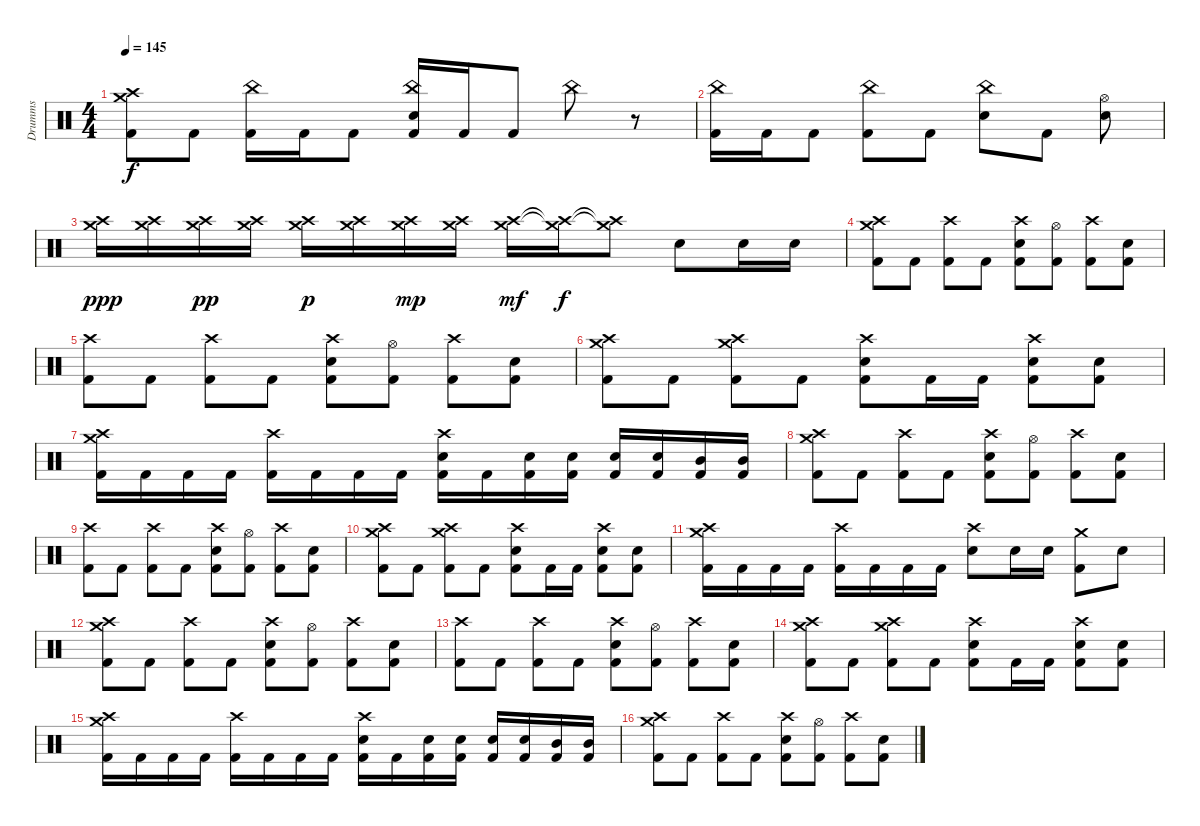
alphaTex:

\track ("Drumms" "Drumms") {instrument percussion}
\staff {score}
\articulation defaults
\ts (4 4)
\tempo 145
\clef neutral
\ks c
("Crash high (hit)" "Crash medium (hit)" "Kick (hit) 2").8{dy f} "Kick (hit) 2".8 ("China (hit)" "Kick (hit) 2").16 "Kick (hit) 2".16 "Kick (hit) 2".8 ("China (hit)" "Electric Snare (hit)" "Kick (hit) 2").16 "Kick (hit) 2".16 "Kick (hit) 2".8 "China (hit)".8 r.8 |
("China (hit)" "Kick (hit) 2").16 "Kick (hit) 2".16 "Kick (hit) 2".8 ("China (hit)" "Kick (hit) 2").8 "Kick (hit) 2".8 ("China (hit)" "Electric Snare (hit)").8 "Kick (hit) 2".8 ("Hi-Hat (open)" "Electric Snare (hit)").8 |
("Crash high (hit)" "Crash medium (hit)").16{dy ppp} ("Crash high (hit)" "Crash medium (hit)").16 ("Crash high (hit)" "Crash medium (hit)").16{dy pp} ("Crash high (hit)" "Crash medium (hit)").16 ("Crash high (hit)" "Crash medium (hit)").16{dy p} ("Crash high (hit)" "Crash medium (hit)").16 ("Crash high (hit)" "Crash medium (hit)").16{dy mp} ("Crash high (hit)" "Crash medium (hit)").16 ("Crash high (hit)" "Crash medium (hit)").16{dy mf} ("Crash high (hit)"{t} "Crash medium (hit)"{t}).16{dy f} ("Crash high (hit)"{t} "Crash medium (hit)"{t}).8 "Electric Snare (hit)".8 "Electric Snare (hit)".16 "Electric Snare (hit)".16 |
("Crash high (hit)" "Crash medium (hit)" "Kick (hit) 2").8 "Kick (hit) 2".8 ("Crash high (hit)" "Kick (hit) 2").8 "Kick (hit) 2".8 ("Crash high (hit)" "Electric Snare (hit)" "Kick (hit) 2").8 ("Hi-Hat (open)" "Kick (hit) 2").8 ("Crash high (hit)" "Kick (hit) 2").8 ("Electric Snare (hit)" "Kick (hit) 2").8 |
("Crash high (hit)" "Kick (hit) 2").8 "Kick (hit) 2".8 ("Crash high (hit)" "Kick (hit) 2").8 "Kick (hit) 2".8 ("Crash high (hit)" "Electric Snare (hit)" "Kick (hit) 2").8 ("Hi-Hat (open)" "Kick (hit) 2").8 ("Crash high (hit)" "Kick (hit) 2").8 ("Electric Snare (hit)" "Kick (hit) 2").8 |
("Crash high (hit)" "Crash medium (hit)" "Kick (hit) 2").8 "Kick (hit) 2".8 ("Crash high (hit)" "Crash medium (hit)" "Kick (hit) 2").8 "Kick (hit) 2".8 ("Crash high (hit)" "Electric Snare (hit)" "Kick (hit) 2").8 "Kick (hit) 2".16 "Kick (hit) 2".16 ("Crash high (hit)" "Electric Snare (hit)" "Kick (hit) 2").8 ("Electric Snare (hit)" "Kick (hit) 2").8 |
("Crash high (hit)" "Crash medium (hit)" "Kick (hit) 2").16 "Kick (hit) 2".16 "Kick (hit) 2".16 "Kick (hit) 2".16 ("Crash high (hit)" "Kick (hit) 2").16 "Kick (hit) 2".16 "Kick (hit) 2".16 "Kick (hit) 2".16 ("Crash high (hit)" "Electric Snare (hit)" "Kick (hit) 2").16 "Kick (hit) 2".16 ("Electric Snare (hit)" "Kick (hit) 2").16 ("Electric Snare (hit)" "Kick (hit) 2").16 ("Electric Snare (hit)" "Kick (hit) 2").16 ("Electric Snare (hit)" "Kick (hit) 2").16 ("Mid Tom (hit)" "Kick (hit) 2").16 ("Mid Tom (hit)" "Kick (hit) 2").16 |
("Crash high (hit)" "Crash medium (hit)" "Kick (hit) 2").8 "Kick (hit) 2".8 ("Crash high (hit)" "Kick (hit) 2").8 "Kick (hit) 2".8 ("Crash high (hit)" "Electric Snare (hit)" "Kick (hit) 2").8 ("Hi-Hat (open)" "Kick (hit) 2").8 ("Crash high (hit)" "Kick (hit) 2").8 ("Electric Snare (hit)" "Kick (hit) 2").8 |
("Crash high (hit)" "Kick (hit) 2").8 "Kick (hit) 2".8 ("Crash high (hit)" "Kick (hit) 2").8 "Kick (hit) 2".8 ("Crash high (hit)" "Electric Snare (hit)" "Kick (hit) 2").8 ("Hi-Hat (open)" "Kick (hit) 2").8 ("Crash high (hit)" "Kick (hit) 2").8 ("Electric Snare (hit)" "Kick (hit) 2").8 |
("Crash high (hit)" "Crash medium (hit)" "Kick (hit) 2").8 "Kick (hit) 2".8 ("Crash high (hit)" "Crash medium (hit)" "Kick (hit) 2").8 "Kick (hit) 2".8 ("Crash high (hit)" "Electric Snare (hit)" "Kick (hit) 2").8 "Kick (hit) 2".16 "Kick (hit) 2".16 ("Crash high (hit)" "Electric Snare (hit)" "Kick (hit) 2").8 ("Electric Snare (hit)" "Kick (hit) 2").8 |
("Crash high (hit)" "Crash medium (hit)" "Kick (hit) 2").16 "Kick (hit) 2".16 "Kick (hit) 2".16 "Kick (hit) 2".16 ("Crash high (hit)" "Kick (hit) 2").16 "Kick (hit) 2".16 "Kick (hit) 2".16 "Kick (hit) 2".16 ("Crash high (hit)" "Electric Snare (hit)").8 "Electric Snare (hit)".16 "Electric Snare (hit)".16 ("Crash medium (hit)" "Kick (hit) 2").8 "Electric Snare (hit)".8 |
("Crash high (hit)" "Crash medium (hit)" "Kick (hit) 2").8 "Kick (hit) 2".8 ("Crash high (hit)" "Kick (hit) 2").8 "Kick (hit) 2".8 ("Crash high (hit)" "Electric Snare (hit)" "Kick (hit) 2").8 ("Hi-Hat (open)" "Kick (hit) 2").8 ("Crash high (hit)" "Kick (hit) 2").8 ("Electric Snare (hit)" "Kick (hit) 2").8 |
("Crash high (hit)" "Kick (hit) 2").8 "Kick (hit) 2".8 ("Crash high (hit)" "Kick (hit) 2").8 "Kick (hit) 2".8 ("Crash high (hit)" "Electric Snare (hit)" "Kick (hit) 2").8 ("Hi-Hat (open)" "Kick (hit) 2").8 ("Crash high (hit)" "Kick (hit) 2").8 ("Electric Snare (hit)" "Kick (hit) 2").8 |
("Crash high (hit)" "Crash medium (hit)" "Kick (hit) 2").8 "Kick (hit) 2".8 ("Crash high (hit)" "Crash medium (hit)" "Kick (hit) 2").8 "Kick (hit) 2".8 ("Crash high (hit)" "Electric Snare (hit)" "Kick (hit) 2").8 "Kick (hit) 2".16 "Kick (hit) 2".16 ("Crash high (hit)" "Electric Snare (hit)" "Kick (hit) 2").8 ("Electric Snare (hit)" "Kick (hit) 2").8 |
("Crash high (hit)" "Crash medium (hit)" "Kick (hit) 2").16 "Kick (hit) 2".16 "Kick (hit) 2".16 "Kick (hit) 2".16 ("Crash high (hit)" "Kick (hit) 2").16 "Kick (hit) 2".16 "Kick (hit) 2".16 "Kick (hit) 2".16 ("Crash high (hit)" "Electric Snare (hit)" "Kick (hit) 2").16 "Kick (hit) 2".16 ("Electric Snare (hit)" "Kick (hit) 2").16 ("Electric Snare (hit)" "Kick (hit) 2").16 ("Electric Snare (hit)" "Kick (hit) 2").16 ("Electric Snare (hit)" "Kick (hit) 2").16 ("Mid Tom (hit)" "Kick (hit) 2").16 ("Mid Tom (hit)" "Kick (hit) 2").16 |
("Crash high (hit)" "Crash medium (hit)" "Kick (hit) 2").8 "Kick (hit) 2".8 ("Crash high (hit)" "Kick (hit) 2").8 "Kick (hit) 2".8 ("Crash high (hit)" "Electric Snare (hit)" "Kick (hit) 2").8 ("Hi-Hat (open)" "Kick (hit) 2").8 ("Crash high (hit)" "Kick (hit) 2").8 ("Electric Snare (hit)" "Kick (hit) 2").8
